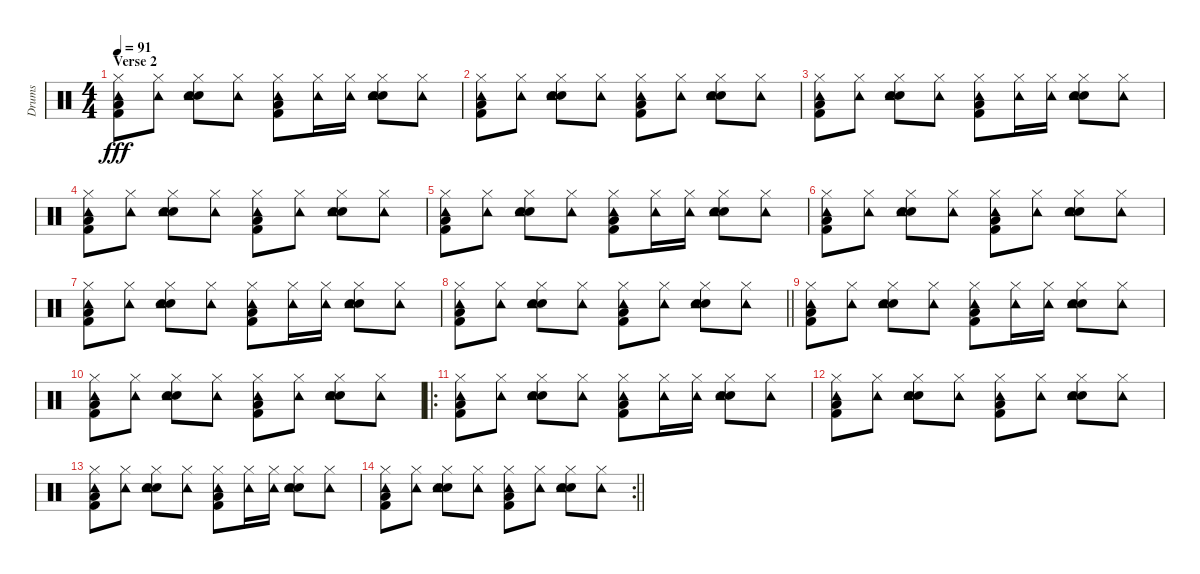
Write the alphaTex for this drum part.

\track ("Drums" "Drums") {instrument percussion}
\staff {score}
\articulation defaults
\ts (4 4)
\section ("" "Verse 2")
\tempo 91
\clef neutral
\ks c
("Hi-Hat (closed)" "Low Floor Tom (hit)" "Kick (hit) 2" "Tambourine (hit)").8{dy fff} ("Hi-Hat (closed)" "Tambourine (hit)").8 ("Hi-Hat (closed)" "Electric Snare (hit)" "Hand Clap (hit)" "Tambourine (hit)").8 ("Hi-Hat (closed)" "Tambourine (hit)").8 ("Hi-Hat (closed)" "Low Floor Tom (hit)" "Kick (hit) 2" "Tambourine (hit)").8 ("Hi-Hat (closed)" "Tambourine (hit)").16 ("Hi-Hat (closed)" "Tambourine (hit)").16 ("Hi-Hat (closed)" "Electric Snare (hit)" "Hand Clap (hit)" "Tambourine (hit)").8 ("Hi-Hat (closed)" "Tambourine (hit)").8 |
("Hi-Hat (closed)" "Low Floor Tom (hit)" "Kick (hit) 2" "Tambourine (hit)").8 ("Hi-Hat (closed)" "Tambourine (hit)").8 ("Hi-Hat (closed)" "Electric Snare (hit)" "Hand Clap (hit)" "Tambourine (hit)").8 ("Hi-Hat (closed)" "Tambourine (hit)").8 ("Hi-Hat (closed)" "Low Floor Tom (hit)" "Kick (hit) 2" "Tambourine (hit)").8 ("Hi-Hat (closed)" "Tambourine (hit)").8 ("Hi-Hat (closed)" "Electric Snare (hit)" "Hand Clap (hit)" "Tambourine (hit)").8 ("Hi-Hat (closed)" "Tambourine (hit)").8 |
("Hi-Hat (closed)" "Low Floor Tom (hit)" "Kick (hit) 2" "Tambourine (hit)").8 ("Hi-Hat (closed)" "Tambourine (hit)").8 ("Hi-Hat (closed)" "Electric Snare (hit)" "Hand Clap (hit)" "Tambourine (hit)").8 ("Hi-Hat (closed)" "Tambourine (hit)").8 ("Hi-Hat (closed)" "Low Floor Tom (hit)" "Kick (hit) 2" "Tambourine (hit)").8 ("Hi-Hat (closed)" "Tambourine (hit)").16 ("Hi-Hat (closed)" "Tambourine (hit)").16 ("Hi-Hat (closed)" "Electric Snare (hit)" "Hand Clap (hit)" "Tambourine (hit)").8 ("Hi-Hat (closed)" "Tambourine (hit)").8 |
("Hi-Hat (closed)" "Low Floor Tom (hit)" "Kick (hit) 2" "Tambourine (hit)").8 ("Hi-Hat (closed)" "Tambourine (hit)").8 ("Hi-Hat (closed)" "Electric Snare (hit)" "Hand Clap (hit)" "Tambourine (hit)").8 ("Hi-Hat (closed)" "Tambourine (hit)").8 ("Hi-Hat (closed)" "Low Floor Tom (hit)" "Kick (hit) 2" "Tambourine (hit)").8 ("Hi-Hat (closed)" "Tambourine (hit)").8 ("Hi-Hat (closed)" "Electric Snare (hit)" "Hand Clap (hit)" "Tambourine (hit)").8 ("Hi-Hat (closed)" "Tambourine (hit)").8 |
("Hi-Hat (closed)" "Low Floor Tom (hit)" "Kick (hit) 2" "Tambourine (hit)").8 ("Hi-Hat (closed)" "Tambourine (hit)").8 ("Hi-Hat (closed)" "Electric Snare (hit)" "Hand Clap (hit)" "Tambourine (hit)").8 ("Hi-Hat (closed)" "Tambourine (hit)").8 ("Hi-Hat (closed)" "Low Floor Tom (hit)" "Kick (hit) 2" "Tambourine (hit)").8 ("Hi-Hat (closed)" "Tambourine (hit)").16 ("Hi-Hat (closed)" "Tambourine (hit)").16 ("Hi-Hat (closed)" "Electric Snare (hit)" "Hand Clap (hit)" "Tambourine (hit)").8 ("Hi-Hat (closed)" "Tambourine (hit)").8 |
("Hi-Hat (closed)" "Low Floor Tom (hit)" "Kick (hit) 2" "Tambourine (hit)").8 ("Hi-Hat (closed)" "Tambourine (hit)").8 ("Hi-Hat (closed)" "Electric Snare (hit)" "Hand Clap (hit)" "Tambourine (hit)").8 ("Hi-Hat (closed)" "Tambourine (hit)").8 ("Hi-Hat (closed)" "Low Floor Tom (hit)" "Kick (hit) 2" "Tambourine (hit)").8 ("Hi-Hat (closed)" "Tambourine (hit)").8 ("Hi-Hat (closed)" "Electric Snare (hit)" "Hand Clap (hit)" "Tambourine (hit)").8 ("Hi-Hat (closed)" "Tambourine (hit)").8 |
("Hi-Hat (closed)" "Low Floor Tom (hit)" "Kick (hit) 2" "Tambourine (hit)").8 ("Hi-Hat (closed)" "Tambourine (hit)").8 ("Hi-Hat (closed)" "Electric Snare (hit)" "Hand Clap (hit)" "Tambourine (hit)").8 ("Hi-Hat (closed)" "Tambourine (hit)").8 ("Hi-Hat (closed)" "Low Floor Tom (hit)" "Kick (hit) 2" "Tambourine (hit)").8 ("Hi-Hat (closed)" "Tambourine (hit)").16 ("Hi-Hat (closed)" "Tambourine (hit)").16 ("Hi-Hat (closed)" "Electric Snare (hit)" "Hand Clap (hit)" "Tambourine (hit)").8 ("Hi-Hat (closed)" "Tambourine (hit)").8 |
\barLineRight lightlight
("Hi-Hat (closed)" "Low Floor Tom (hit)" "Kick (hit) 2" "Tambourine (hit)").8 ("Hi-Hat (closed)" "Tambourine (hit)").8 ("Hi-Hat (closed)" "Electric Snare (hit)" "Hand Clap (hit)" "Tambourine (hit)").8 ("Hi-Hat (closed)" "Tambourine (hit)").8 ("Hi-Hat (closed)" "Low Floor Tom (hit)" "Kick (hit) 2" "Tambourine (hit)").8 ("Hi-Hat (closed)" "Tambourine (hit)").8 ("Hi-Hat (closed)" "Electric Snare (hit)" "Hand Clap (hit)" "Tambourine (hit)").8 ("Hi-Hat (closed)" "Tambourine (hit)").8 |
("Hi-Hat (closed)" "Low Floor Tom (hit)" "Kick (hit) 2" "Tambourine (hit)").8 ("Hi-Hat (closed)" "Tambourine (hit)").8 ("Hi-Hat (closed)" "Electric Snare (hit)" "Hand Clap (hit)" "Tambourine (hit)").8 ("Hi-Hat (closed)" "Tambourine (hit)").8 ("Hi-Hat (closed)" "Low Floor Tom (hit)" "Kick (hit) 2" "Tambourine (hit)").8 ("Hi-Hat (closed)" "Tambourine (hit)").16 ("Hi-Hat (closed)" "Tambourine (hit)").16 ("Hi-Hat (closed)" "Electric Snare (hit)" "Hand Clap (hit)" "Tambourine (hit)").8 ("Hi-Hat (closed)" "Tambourine (hit)").8 |
("Hi-Hat (closed)" "Low Floor Tom (hit)" "Kick (hit) 2" "Tambourine (hit)").8 ("Hi-Hat (closed)" "Tambourine (hit)").8 ("Hi-Hat (closed)" "Electric Snare (hit)" "Hand Clap (hit)" "Tambourine (hit)").8 ("Hi-Hat (closed)" "Tambourine (hit)").8 ("Hi-Hat (closed)" "Low Floor Tom (hit)" "Kick (hit) 2" "Tambourine (hit)").8 ("Hi-Hat (closed)" "Tambourine (hit)").8 ("Hi-Hat (closed)" "Electric Snare (hit)" "Hand Clap (hit)" "Tambourine (hit)").8 ("Hi-Hat (closed)" "Tambourine (hit)").8 |
\ro
("Hi-Hat (closed)" "Low Floor Tom (hit)" "Kick (hit) 2" "Tambourine (hit)").8 ("Hi-Hat (closed)" "Tambourine (hit)").8 ("Hi-Hat (closed)" "Electric Snare (hit)" "Hand Clap (hit)" "Tambourine (hit)").8 ("Hi-Hat (closed)" "Tambourine (hit)").8 ("Hi-Hat (closed)" "Low Floor Tom (hit)" "Kick (hit) 2" "Tambourine (hit)").8 ("Hi-Hat (closed)" "Tambourine (hit)").16 ("Hi-Hat (closed)" "Tambourine (hit)").16 ("Hi-Hat (closed)" "Electric Snare (hit)" "Hand Clap (hit)" "Tambourine (hit)").8 ("Hi-Hat (closed)" "Tambourine (hit)").8 |
("Hi-Hat (closed)" "Low Floor Tom (hit)" "Kick (hit) 2" "Tambourine (hit)").8 ("Hi-Hat (closed)" "Tambourine (hit)").8 ("Hi-Hat (closed)" "Electric Snare (hit)" "Hand Clap (hit)" "Tambourine (hit)").8 ("Hi-Hat (closed)" "Tambourine (hit)").8 ("Hi-Hat (closed)" "Low Floor Tom (hit)" "Kick (hit) 2" "Tambourine (hit)").8 ("Hi-Hat (closed)" "Tambourine (hit)").8 ("Hi-Hat (closed)" "Electric Snare (hit)" "Hand Clap (hit)" "Tambourine (hit)").8 ("Hi-Hat (closed)" "Tambourine (hit)").8 |
("Hi-Hat (closed)" "Low Floor Tom (hit)" "Kick (hit) 2" "Tambourine (hit)").8 ("Hi-Hat (closed)" "Tambourine (hit)").8 ("Hi-Hat (closed)" "Electric Snare (hit)" "Hand Clap (hit)" "Tambourine (hit)").8 ("Hi-Hat (closed)" "Tambourine (hit)").8 ("Hi-Hat (closed)" "Low Floor Tom (hit)" "Kick (hit) 2" "Tambourine (hit)").8 ("Hi-Hat (closed)" "Tambourine (hit)").16 ("Hi-Hat (closed)" "Tambourine (hit)").16 ("Hi-Hat (closed)" "Electric Snare (hit)" "Hand Clap (hit)" "Tambourine (hit)").8 ("Hi-Hat (closed)" "Tambourine (hit)").8 |
\rc 2
\barLineRight lightlight
("Hi-Hat (closed)" "Low Floor Tom (hit)" "Kick (hit) 2" "Tambourine (hit)").8 ("Hi-Hat (closed)" "Tambourine (hit)").8 ("Hi-Hat (closed)" "Electric Snare (hit)" "Hand Clap (hit)" "Tambourine (hit)").8 ("Hi-Hat (closed)" "Tambourine (hit)").8 ("Hi-Hat (closed)" "Low Floor Tom (hit)" "Kick (hit) 2" "Tambourine (hit)").8 ("Hi-Hat (closed)" "Tambourine (hit)").8 ("Hi-Hat (closed)" "Electric Snare (hit)" "Hand Clap (hit)" "Tambourine (hit)").8 ("Hi-Hat (closed)" "Tambourine (hit)").8
